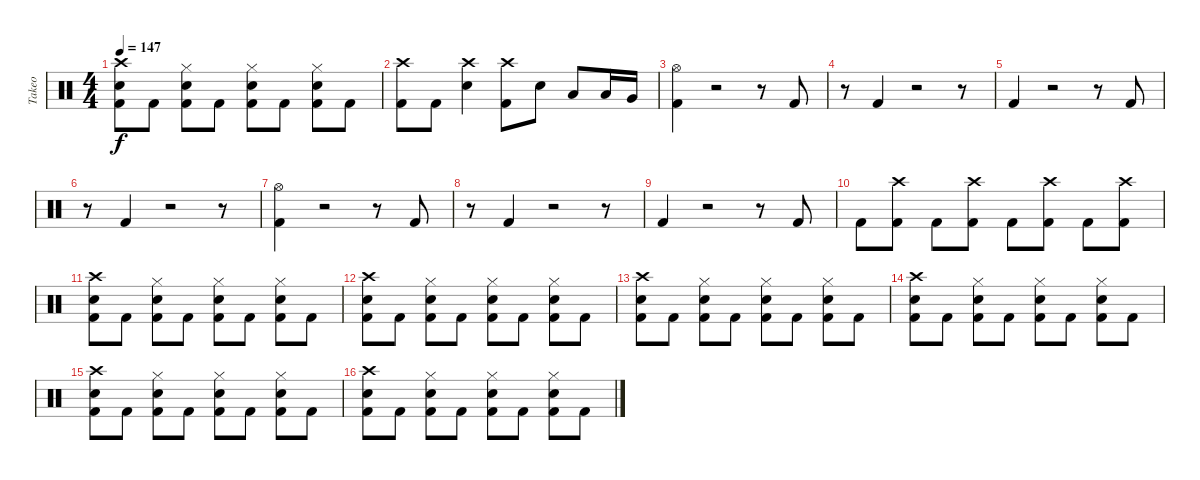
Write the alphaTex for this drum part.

\track ("Takeo" "Takeo") {instrument percussion}
\staff {score}
\articulation defaults
\ts (4 4)
\tempo 147
\clef neutral
\ks c
("Kick (hit) 2" "Snare (hit) 2" "Crash high (hit)").8{dy f} "Kick (hit) 2".8 ("Kick (hit) 2" "Snare (hit) 2" "Hi-Hat (closed)").8 "Kick (hit) 2".8 ("Kick (hit) 2" "Snare (hit) 2" "Hi-Hat (closed)").8 "Kick (hit) 2".8 ("Kick (hit) 2" "Snare (hit) 2" "Hi-Hat (closed)").8 "Kick (hit) 2".8 |
("Kick (hit) 2" "Crash high (hit)").8 "Kick (hit) 2".8 ("Snare (hit) 2" "Crash high (hit)").4 ("Kick (hit) 2" "Crash high (hit)").8 "Snare (hit) 2".8 "Low Tom (hit)".8 "Low Tom (hit)".16 "Very Low Tom (hit)".16 |
("Kick (hit) 2" "Hi-Hat (open)").4 r.2 r.8 "Kick (hit) 2".8 |
r.8 "Kick (hit) 2".4 r.2 r.8 |
"Kick (hit) 2".4 r.2 r.8 "Kick (hit) 2".8 |
r.8 "Kick (hit) 2".4 r.2 r.8 |
("Kick (hit) 2" "Hi-Hat (open)").4 r.2 r.8 "Kick (hit) 2".8 |
r.8 "Kick (hit) 2".4 r.2 r.8 |
"Kick (hit) 2".4 r.2 r.8 "Kick (hit) 2".8 |
"Kick (hit) 2".8 ("Kick (hit) 2" "Crash high (hit)").8 "Kick (hit) 2".8 ("Kick (hit) 2" "Crash high (hit)").8 "Kick (hit) 2".8 ("Kick (hit) 2" "Crash high (hit)").8 "Kick (hit) 2".8 ("Kick (hit) 2" "Crash high (hit)").8 |
("Kick (hit) 2" "Snare (hit) 2" "Crash high (hit)").8 "Kick (hit) 2".8 ("Kick (hit) 2" "Snare (hit) 2" "Hi-Hat (closed)").8 "Kick (hit) 2".8 ("Kick (hit) 2" "Snare (hit) 2" "Hi-Hat (closed)").8 "Kick (hit) 2".8 ("Kick (hit) 2" "Snare (hit) 2" "Hi-Hat (closed)").8 "Kick (hit) 2".8 |
("Kick (hit) 2" "Snare (hit) 2" "Crash high (hit)").8 "Kick (hit) 2".8 ("Kick (hit) 2" "Snare (hit) 2" "Hi-Hat (closed)").8 "Kick (hit) 2".8 ("Kick (hit) 2" "Snare (hit) 2" "Hi-Hat (closed)").8 "Kick (hit) 2".8 ("Kick (hit) 2" "Snare (hit) 2" "Hi-Hat (closed)").8 "Kick (hit) 2".8 |
("Kick (hit) 2" "Snare (hit) 2" "Crash high (hit)").8 "Kick (hit) 2".8 ("Kick (hit) 2" "Snare (hit) 2" "Hi-Hat (closed)").8 "Kick (hit) 2".8 ("Kick (hit) 2" "Snare (hit) 2" "Hi-Hat (closed)").8 "Kick (hit) 2".8 ("Kick (hit) 2" "Snare (hit) 2" "Hi-Hat (closed)").8 "Kick (hit) 2".8 |
("Kick (hit) 2" "Snare (hit) 2" "Crash high (hit)").8 "Kick (hit) 2".8 ("Kick (hit) 2" "Snare (hit) 2" "Hi-Hat (closed)").8 "Kick (hit) 2".8 ("Kick (hit) 2" "Snare (hit) 2" "Hi-Hat (closed)").8 "Kick (hit) 2".8 ("Kick (hit) 2" "Snare (hit) 2" "Hi-Hat (closed)").8 "Kick (hit) 2".8 |
("Kick (hit) 2" "Snare (hit) 2" "Crash high (hit)").8 "Kick (hit) 2".8 ("Kick (hit) 2" "Snare (hit) 2" "Hi-Hat (closed)").8 "Kick (hit) 2".8 ("Kick (hit) 2" "Snare (hit) 2" "Hi-Hat (closed)").8 "Kick (hit) 2".8 ("Kick (hit) 2" "Snare (hit) 2" "Hi-Hat (closed)").8 "Kick (hit) 2".8 |
("Kick (hit) 2" "Snare (hit) 2" "Crash high (hit)").8 "Kick (hit) 2".8 ("Kick (hit) 2" "Snare (hit) 2" "Hi-Hat (closed)").8 "Kick (hit) 2".8 ("Kick (hit) 2" "Snare (hit) 2" "Hi-Hat (closed)").8 "Kick (hit) 2".8 ("Kick (hit) 2" "Snare (hit) 2" "Hi-Hat (closed)").8 "Kick (hit) 2".8
